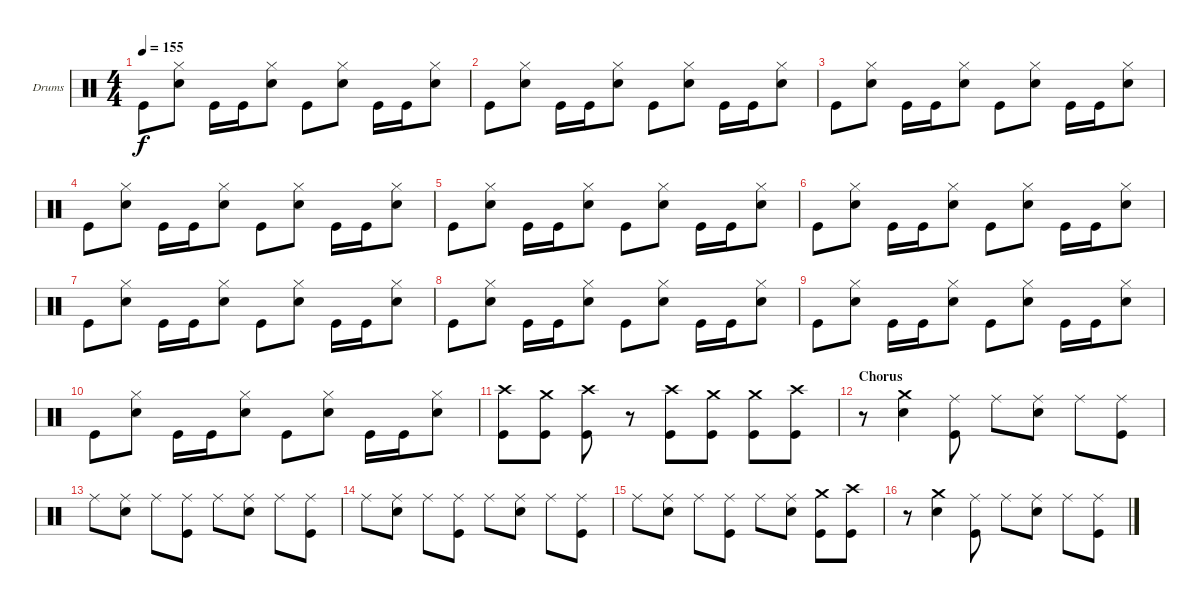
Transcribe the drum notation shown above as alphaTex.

\bracketExtendMode groupsimilarinstruments
\firstSystemTrackNameOrientation horizontal
\otherSystemsTrackNameOrientation horizontal
\track ("Drumkit" "Drums") {instrument percussion}
\staff {score}
\articulation defaults
\ts (4 4)
\tempo 155
\clef neutral
\ks c "Kick (hit)".8{dy f}
("Hi-Hat (closed)" "Snare (hit) 2").8 "Kick (hit)".16 "Kick (hit)".16 ("Hi-Hat (closed)" "Snare (hit) 2").8 "Kick (hit)".8 ("Hi-Hat (closed)" "Snare (hit) 2").8 "Kick (hit)".16 "Kick (hit)".16 ("Hi-Hat (closed)" "Snare (hit) 2").8 |
"Kick (hit)".8 ("Hi-Hat (closed)" "Snare (hit) 2").8 "Kick (hit)".16 "Kick (hit)".16 ("Hi-Hat (closed)" "Snare (hit) 2").8 "Kick (hit)".8 ("Hi-Hat (closed)" "Snare (hit) 2").8 "Kick (hit)".16 "Kick (hit)".16 ("Hi-Hat (closed)" "Snare (hit) 2").8 |
"Kick (hit)".8 ("Hi-Hat (closed)" "Snare (hit) 2").8 "Kick (hit)".16 "Kick (hit)".16 ("Hi-Hat (closed)" "Snare (hit) 2").8 "Kick (hit)".8 ("Hi-Hat (closed)" "Snare (hit) 2").8 "Kick (hit)".16 "Kick (hit)".16 ("Hi-Hat (closed)" "Snare (hit) 2").8 |
"Kick (hit)".8 ("Hi-Hat (closed)" "Snare (hit) 2").8 "Kick (hit)".16 "Kick (hit)".16 ("Hi-Hat (closed)" "Snare (hit) 2").8 "Kick (hit)".8 ("Hi-Hat (closed)" "Snare (hit) 2").8 "Kick (hit)".16 "Kick (hit)".16 ("Hi-Hat (closed)" "Snare (hit) 2").8 |
"Kick (hit)".8 ("Hi-Hat (closed)" "Snare (hit) 2").8 "Kick (hit)".16 "Kick (hit)".16 ("Hi-Hat (closed)" "Snare (hit) 2").8 "Kick (hit)".8 ("Hi-Hat (closed)" "Snare (hit) 2").8 "Kick (hit)".16 "Kick (hit)".16 ("Hi-Hat (closed)" "Snare (hit) 2").8 |
"Kick (hit)".8 ("Hi-Hat (closed)" "Snare (hit) 2").8 "Kick (hit)".16 "Kick (hit)".16 ("Hi-Hat (closed)" "Snare (hit) 2").8 "Kick (hit)".8 ("Hi-Hat (closed)" "Snare (hit) 2").8 "Kick (hit)".16 "Kick (hit)".16 ("Hi-Hat (closed)" "Snare (hit) 2").8 |
"Kick (hit)".8 ("Hi-Hat (closed)" "Snare (hit) 2").8 "Kick (hit)".16 "Kick (hit)".16 ("Hi-Hat (closed)" "Snare (hit) 2").8 "Kick (hit)".8 ("Hi-Hat (closed)" "Snare (hit) 2").8 "Kick (hit)".16 "Kick (hit)".16 ("Hi-Hat (closed)" "Snare (hit) 2").8 |
"Kick (hit)".8 ("Hi-Hat (closed)" "Snare (hit) 2").8 "Kick (hit)".16 "Kick (hit)".16 ("Hi-Hat (closed)" "Snare (hit) 2").8 "Kick (hit)".8 ("Hi-Hat (closed)" "Snare (hit) 2").8 "Kick (hit)".16 "Kick (hit)".16 ("Hi-Hat (closed)" "Snare (hit) 2").8 |
"Kick (hit)".8 ("Hi-Hat (closed)" "Snare (hit) 2").8 "Kick (hit)".16 "Kick (hit)".16 ("Hi-Hat (closed)" "Snare (hit) 2").8 "Kick (hit)".8 ("Hi-Hat (closed)" "Snare (hit) 2").8 "Kick (hit)".16 "Kick (hit)".16 ("Hi-Hat (closed)" "Snare (hit) 2").8 |
"Kick (hit)".8 ("Hi-Hat (closed)" "Snare (hit) 2").8 "Kick (hit)".16 "Kick (hit)".16 ("Hi-Hat (closed)" "Snare (hit) 2").8 "Kick (hit)".8 ("Hi-Hat (closed)" "Snare (hit) 2").8 "Kick (hit)".16 "Kick (hit)".16 ("Hi-Hat (closed)" "Snare (hit) 2").8 |
("Crash high (hit)" "Kick (hit)").8 ("Crash medium (hit)" "Kick (hit)").8 ("Crash high (hit)" "Kick (hit)").8 r.8 ("Crash high (hit)" "Kick (hit)").8 ("Crash medium (hit)" "Kick (hit)").8 ("Crash medium (hit)" "Kick (hit)").8 ("Crash high (hit)" "Kick (hit)").8 |
\section ("" "Chorus")
r.8 ("Crash medium (hit)" "Snare (hit) 2").4 ("Ride (middle)" "Kick (hit)").8 "Ride (middle)".8 ("Ride (middle)" "Snare (hit) 2").8 "Ride (middle)".8 ("Ride (middle)" "Kick (hit)").8 |
"Ride (middle)".8 ("Ride (middle)" "Snare (hit) 2").8 "Ride (middle)".8 ("Ride (middle)" "Kick (hit)").8 "Ride (middle)".8 ("Ride (middle)" "Snare (hit) 2").8 "Ride (middle)".8 ("Ride (middle)" "Kick (hit)").8 |
"Ride (middle)".8 ("Ride (middle)" "Snare (hit) 2").8 "Ride (middle)".8 ("Ride (middle)" "Kick (hit)").8 "Ride (middle)".8 ("Ride (middle)" "Snare (hit) 2").8 "Ride (middle)".8 ("Ride (middle)" "Kick (hit)").8 |
"Ride (middle)".8 ("Ride (middle)" "Snare (hit) 2").8 "Ride (middle)".8 ("Ride (middle)" "Kick (hit)").8 "Ride (middle)".8 ("Ride (middle)" "Snare (hit) 2").8 ("Crash medium (hit)" "Kick (hit)").8 ("Crash high (hit)" "Kick (hit)").8 |
r.8 ("Crash medium (hit)" "Snare (hit) 2").4 ("Ride (middle)" "Kick (hit)").8 "Ride (middle)".8 ("Ride (middle)" "Snare (hit) 2").8 "Ride (middle)".8 ("Ride (middle)" "Kick (hit)").8
